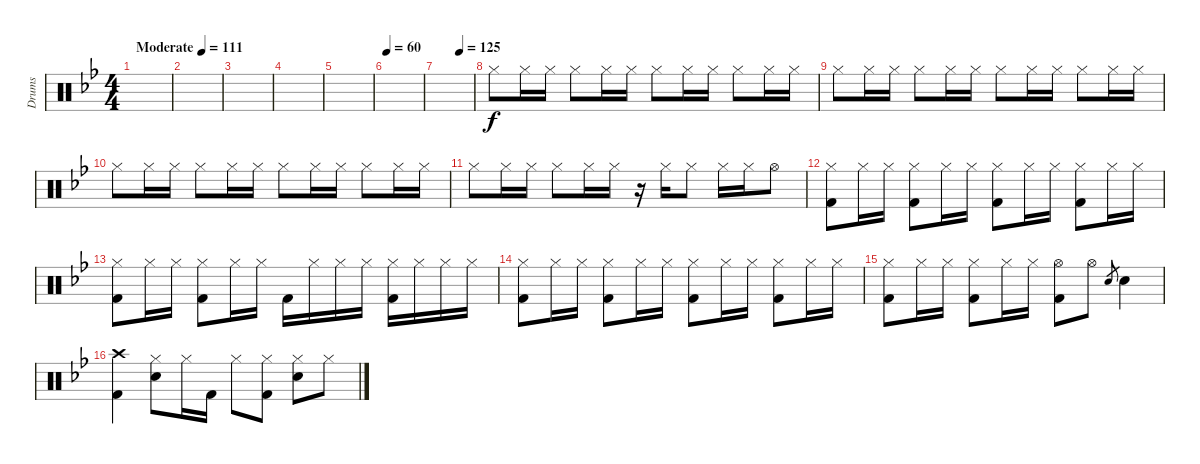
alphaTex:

\track ("Drums" "Drums") {instrument percussion}
\staff {score}
\articulation defaults
\ts (4 4)
\tempo (111 "Moderate")
\clef neutral
\ks bb
|
|
|
|
|
\tempo 60
|
\tempo (125 0.625)
|
"Hi-Hat (closed)".8 "Hi-Hat (closed)".16 "Hi-Hat (closed)".16 "Hi-Hat (closed)".8 "Hi-Hat (closed)".16 "Hi-Hat (closed)".16 "Hi-Hat (closed)".8 "Hi-Hat (closed)".16 "Hi-Hat (closed)".16 "Hi-Hat (closed)".8 "Hi-Hat (closed)".16 "Hi-Hat (closed)".16 |
"Hi-Hat (closed)".8 "Hi-Hat (closed)".16 "Hi-Hat (closed)".16 "Hi-Hat (closed)".8 "Hi-Hat (closed)".16 "Hi-Hat (closed)".16 "Hi-Hat (closed)".8 "Hi-Hat (closed)".16 "Hi-Hat (closed)".16 "Hi-Hat (closed)".8 "Hi-Hat (closed)".16 "Hi-Hat (closed)".16 |
"Hi-Hat (closed)".8 "Hi-Hat (closed)".16 "Hi-Hat (closed)".16 "Hi-Hat (closed)".8 "Hi-Hat (closed)".16 "Hi-Hat (closed)".16 "Hi-Hat (closed)".8 "Hi-Hat (closed)".16 "Hi-Hat (closed)".16 "Hi-Hat (closed)".8 "Hi-Hat (closed)".16 "Hi-Hat (closed)".16 |
"Hi-Hat (closed)".8 "Hi-Hat (closed)".16 "Hi-Hat (closed)".16 "Hi-Hat (closed)".8 "Hi-Hat (closed)".16 "Hi-Hat (closed)".16 r.16 "Hi-Hat (closed)".16 "Hi-Hat (closed)".8 "Hi-Hat (closed)".16 "Hi-Hat (closed)".16 "Hi-Hat (open)".8 |
("Hi-Hat (closed)" "Kick (hit) 2").8 "Hi-Hat (closed)".16 "Hi-Hat (closed)".16 ("Hi-Hat (closed)" "Kick (hit) 2").8 "Hi-Hat (closed)".16 "Hi-Hat (closed)".16 ("Hi-Hat (closed)" "Kick (hit) 2").8 "Hi-Hat (closed)".16 "Hi-Hat (closed)".16 ("Hi-Hat (closed)" "Kick (hit) 2").8 "Hi-Hat (closed)".16 "Hi-Hat (closed)".16 |
("Hi-Hat (closed)" "Kick (hit) 2").8 "Hi-Hat (closed)".16 "Hi-Hat (closed)".16 ("Hi-Hat (closed)" "Kick (hit) 2").8 "Hi-Hat (closed)".16 "Hi-Hat (closed)".16 "Kick (hit) 2".16 "Hi-Hat (closed)".16 "Hi-Hat (closed)".16 "Hi-Hat (closed)".16 ("Hi-Hat (closed)" "Kick (hit) 2").16 "Hi-Hat (closed)".16 "Hi-Hat (closed)".16 "Hi-Hat (closed)".16 |
("Hi-Hat (closed)" "Kick (hit) 2").8 "Hi-Hat (closed)".16 "Hi-Hat (closed)".16 ("Hi-Hat (closed)" "Kick (hit) 2").8 "Hi-Hat (closed)".16 "Hi-Hat (closed)".16 ("Hi-Hat (closed)" "Kick (hit) 2").8 "Hi-Hat (closed)".16 "Hi-Hat (closed)".16 ("Hi-Hat (closed)" "Kick (hit) 2").8 "Hi-Hat (closed)".16 "Hi-Hat (closed)".16 |
("Hi-Hat (closed)" "Kick (hit) 2").8 "Hi-Hat (closed)".16 "Hi-Hat (closed)".16 ("Hi-Hat (closed)" "Kick (hit) 2").8 "Hi-Hat (closed)".16 "Hi-Hat (closed)".16 ("Hi-Hat (open)" "Kick (hit) 2").8 "Hi-Hat (open)".8 "Electric Snare (hit)".8{gr} "Electric Snare (hit)".4 |
("Crash high (hit)" "Kick (hit) 2").4 ("Hi-Hat (closed)" "Electric Snare (hit)").8 "Hi-Hat (closed)".16 "Kick (hit) 2".16 "Hi-Hat (closed)".8 ("Hi-Hat (closed)" "Kick (hit) 2").8 ("Hi-Hat (closed)" "Electric Snare (hit)").8 "Hi-Hat (closed)".8
